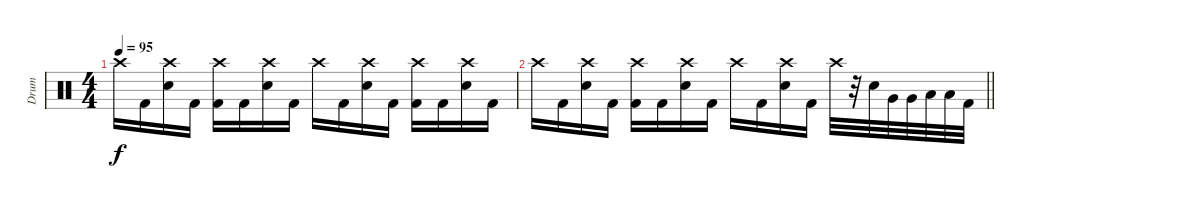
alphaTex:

\track ("Drum" "Drum") {instrument percussion}
\staff {score}
\articulation defaults
\ts (4 4)
\tempo 95
\clef neutral
\ks c "Crash high (hit)".16{dy f} "Kick (hit) 2".16
("Crash high (hit)" "Electric Snare (hit)").16 "Kick (hit) 2".16 ("Crash high (hit)" "Kick (hit) 2").16 "Kick (hit) 2".16 ("Crash high (hit)" "Electric Snare (hit)").16 "Kick (hit) 2".16 "Crash high (hit)".16 "Kick (hit) 2".16 ("Crash high (hit)" "Electric Snare (hit)").16 "Kick (hit) 2".16 ("Crash high (hit)" "Kick (hit) 2").16 "Kick (hit) 2".16 ("Crash high (hit)" "Electric Snare (hit)").16 "Kick (hit) 2".16 |
\barLineRight lightlight "Crash high (hit)".16 "Kick (hit) 2".16
("Crash high (hit)" "Electric Snare (hit)").16 "Kick (hit) 2".16 ("Crash high (hit)" "Kick (hit) 2").16 "Kick (hit) 2".16 ("Crash high (hit)" "Electric Snare (hit)").16 "Kick (hit) 2".16 "Crash high (hit)".16 "Kick (hit) 2".16 ("Crash high (hit)" "Electric Snare (hit)").16 "Kick (hit) 2".16 "Crash high (hit)".32 r.32 "Electric Snare (hit)".32 "Very Low Tom (hit)".32 "Very Low Tom (hit)".32 "Low Floor Tom (hit)".32 "Low Floor Tom (hit)".32 "Kick (hit) 2".32
